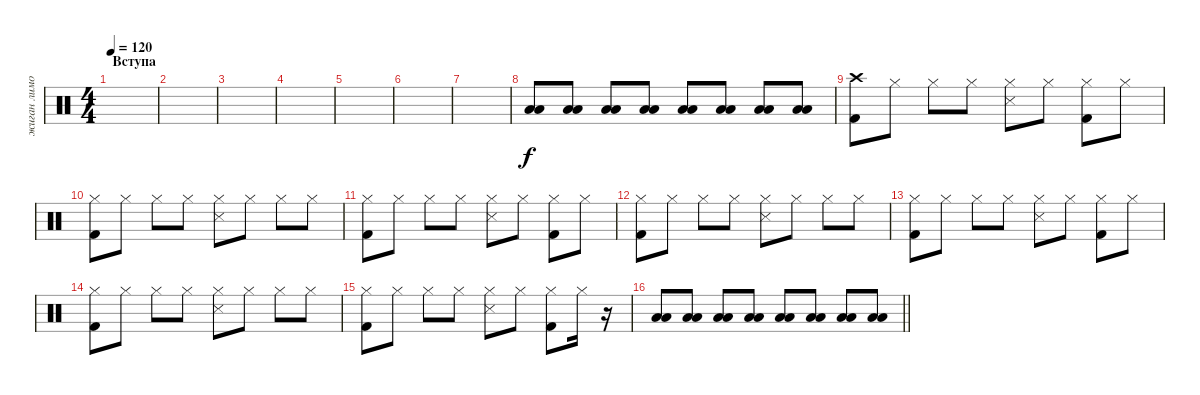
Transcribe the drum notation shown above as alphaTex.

\track ("жиган лимон" "жиган лимо") {instrument percussion}
\staff {score}
\articulation defaults
\ts (4 4)
\section ("" "Вступа")
\tempo 120
\clef neutral
\ks c
|
|
|
|
|
|
|
("Low Tom (hit)" "Low Floor Tom (hit)").8{volume 13} ("Low Tom (hit)" "Low Floor Tom (hit)").8 ("Low Tom (hit)" "Low Floor Tom (hit)").8 ("Low Tom (hit)" "Low Floor Tom (hit)").8 ("Low Tom (hit)" "Low Floor Tom (hit)").8 ("Low Tom (hit)" "Low Floor Tom (hit)").8 ("Low Tom (hit)" "Low Floor Tom (hit)").8 ("Low Tom (hit)" "Low Floor Tom (hit)").8 |
("Crash high (hit)" "Kick (hit) 2").8 "Hi-Hat (closed)".8 "Hi-Hat (closed)".8 "Hi-Hat (closed)".8 ("Hi-Hat (closed)" "Snare (side stick) 3").8 "Hi-Hat (closed)".8 ("Hi-Hat (closed)" "Kick (hit) 2").8 "Hi-Hat (closed)".8 |
("Hi-Hat (closed)" "Kick (hit) 2").8 "Hi-Hat (closed)".8 "Hi-Hat (closed)".8 "Hi-Hat (closed)".8 ("Hi-Hat (closed)" "Snare (side stick) 3").8 "Hi-Hat (closed)".8 "Hi-Hat (closed)".8 "Hi-Hat (closed)".8 |
("Hi-Hat (closed)" "Kick (hit) 2").8 "Hi-Hat (closed)".8 "Hi-Hat (closed)".8 "Hi-Hat (closed)".8 ("Hi-Hat (closed)" "Snare (side stick) 3").8 "Hi-Hat (closed)".8 ("Hi-Hat (closed)" "Kick (hit) 2").8 "Hi-Hat (closed)".8 |
("Hi-Hat (closed)" "Kick (hit) 2").8 "Hi-Hat (closed)".8 "Hi-Hat (closed)".8 "Hi-Hat (closed)".8 ("Hi-Hat (closed)" "Snare (side stick) 3").8 "Hi-Hat (closed)".8 "Hi-Hat (closed)".8 "Hi-Hat (closed)".8 |
("Hi-Hat (closed)" "Kick (hit) 2").8 "Hi-Hat (closed)".8 "Hi-Hat (closed)".8 "Hi-Hat (closed)".8 ("Hi-Hat (closed)" "Snare (side stick) 3").8 "Hi-Hat (closed)".8 ("Hi-Hat (closed)" "Kick (hit) 2").8 "Hi-Hat (closed)".8 |
("Hi-Hat (closed)" "Kick (hit) 2").8 "Hi-Hat (closed)".8 "Hi-Hat (closed)".8 "Hi-Hat (closed)".8 ("Hi-Hat (closed)" "Snare (side stick) 3").8 "Hi-Hat (closed)".8 "Hi-Hat (closed)".8 "Hi-Hat (closed)".8 |
("Hi-Hat (closed)" "Kick (hit) 2").8 "Hi-Hat (closed)".8 "Hi-Hat (closed)".8 "Hi-Hat (closed)".8 ("Hi-Hat (closed)" "Snare (side stick) 3").8 "Hi-Hat (closed)".8 ("Hi-Hat (closed)" "Kick (hit) 2").8 "Hi-Hat (closed)".16 r.16{volume 6} |
\barLineRight lightlight
("Low Tom (hit)" "Low Floor Tom (hit)").8{volume 13} ("Low Tom (hit)" "Low Floor Tom (hit)").8 ("Low Tom (hit)" "Low Floor Tom (hit)").8 ("Low Tom (hit)" "Low Floor Tom (hit)").8 ("Low Tom (hit)" "Low Floor Tom (hit)").8 ("Low Tom (hit)" "Low Floor Tom (hit)").8 ("Low Tom (hit)" "Low Floor Tom (hit)").8 ("Low Tom (hit)" "Low Floor Tom (hit)").8
